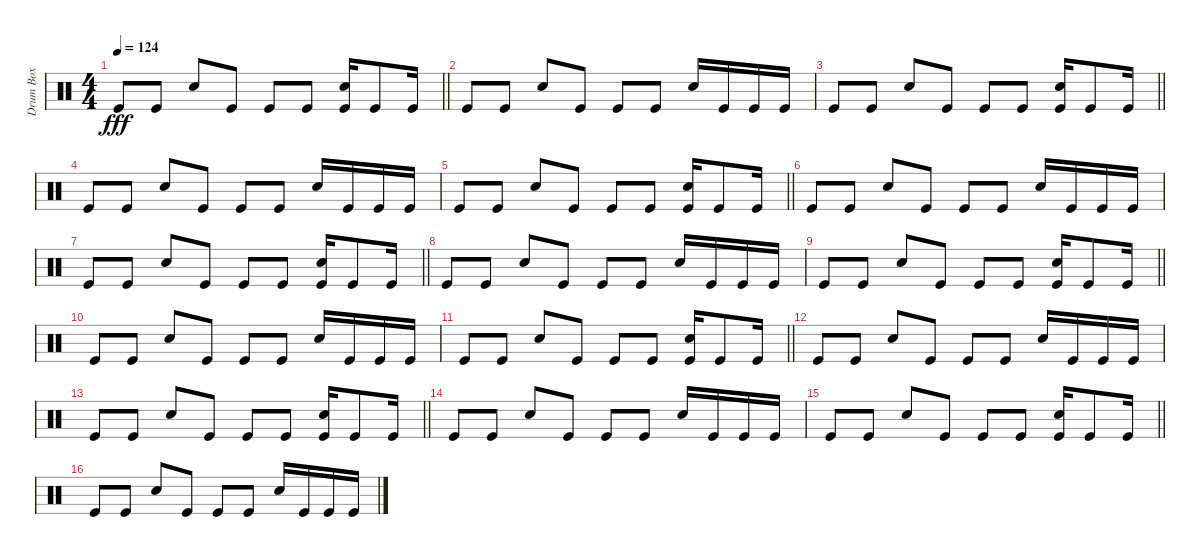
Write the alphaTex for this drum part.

\track ("Drum Box" "Drum Box") {instrument percussion}
\staff {score}
\articulation defaults
\ts (4 4)
\tempo 124
\clef neutral
\barLineRight lightlight
\ks c "Kick (hit)".8{dy fff} "Kick (hit)".8 "Snare (hit) 2".8 "Kick (hit)".8 "Kick (hit)".8 "Kick (hit)".8
("Snare (hit) 2" "Kick (hit)").16 "Kick (hit)".8 "Kick (hit)".16 |
"Kick (hit)".8 "Kick (hit)".8 "Snare (hit) 2".8 "Kick (hit)".8 "Kick (hit)".8 "Kick (hit)".8 "Snare (hit) 2".16 "Kick (hit)".16 "Kick (hit)".16 "Kick (hit)".16 |
\barLineRight lightlight "Kick (hit)".8 "Kick (hit)".8 "Snare (hit) 2".8 "Kick (hit)".8 "Kick (hit)".8 "Kick (hit)".8
("Snare (hit) 2" "Kick (hit)").16 "Kick (hit)".8 "Kick (hit)".16 |
"Kick (hit)".8 "Kick (hit)".8 "Snare (hit) 2".8 "Kick (hit)".8 "Kick (hit)".8 "Kick (hit)".8 "Snare (hit) 2".16 "Kick (hit)".16 "Kick (hit)".16 "Kick (hit)".16 |
\barLineRight lightlight "Kick (hit)".8 "Kick (hit)".8 "Snare (hit) 2".8 "Kick (hit)".8 "Kick (hit)".8 "Kick (hit)".8
("Snare (hit) 2" "Kick (hit)").16 "Kick (hit)".8 "Kick (hit)".16 |
"Kick (hit)".8 "Kick (hit)".8 "Snare (hit) 2".8 "Kick (hit)".8 "Kick (hit)".8 "Kick (hit)".8 "Snare (hit) 2".16 "Kick (hit)".16 "Kick (hit)".16 "Kick (hit)".16 |
\barLineRight lightlight "Kick (hit)".8 "Kick (hit)".8 "Snare (hit) 2".8 "Kick (hit)".8 "Kick (hit)".8 "Kick (hit)".8
("Snare (hit) 2" "Kick (hit)").16 "Kick (hit)".8 "Kick (hit)".16 |
"Kick (hit)".8 "Kick (hit)".8 "Snare (hit) 2".8 "Kick (hit)".8 "Kick (hit)".8 "Kick (hit)".8 "Snare (hit) 2".16 "Kick (hit)".16 "Kick (hit)".16 "Kick (hit)".16 |
\barLineRight lightlight "Kick (hit)".8 "Kick (hit)".8 "Snare (hit) 2".8 "Kick (hit)".8 "Kick (hit)".8 "Kick (hit)".8
("Snare (hit) 2" "Kick (hit)").16 "Kick (hit)".8 "Kick (hit)".16 |
"Kick (hit)".8 "Kick (hit)".8 "Snare (hit) 2".8 "Kick (hit)".8 "Kick (hit)".8 "Kick (hit)".8 "Snare (hit) 2".16 "Kick (hit)".16 "Kick (hit)".16 "Kick (hit)".16 |
\barLineRight lightlight "Kick (hit)".8 "Kick (hit)".8 "Snare (hit) 2".8 "Kick (hit)".8 "Kick (hit)".8 "Kick (hit)".8
("Snare (hit) 2" "Kick (hit)").16 "Kick (hit)".8 "Kick (hit)".16 |
"Kick (hit)".8 "Kick (hit)".8 "Snare (hit) 2".8 "Kick (hit)".8 "Kick (hit)".8 "Kick (hit)".8 "Snare (hit) 2".16 "Kick (hit)".16 "Kick (hit)".16 "Kick (hit)".16 |
\barLineRight lightlight "Kick (hit)".8 "Kick (hit)".8 "Snare (hit) 2".8 "Kick (hit)".8 "Kick (hit)".8 "Kick (hit)".8
("Snare (hit) 2" "Kick (hit)").16 "Kick (hit)".8 "Kick (hit)".16 |
"Kick (hit)".8 "Kick (hit)".8 "Snare (hit) 2".8 "Kick (hit)".8 "Kick (hit)".8 "Kick (hit)".8 "Snare (hit) 2".16 "Kick (hit)".16 "Kick (hit)".16 "Kick (hit)".16 |
\barLineRight lightlight "Kick (hit)".8 "Kick (hit)".8 "Snare (hit) 2".8 "Kick (hit)".8 "Kick (hit)".8 "Kick (hit)".8
("Snare (hit) 2" "Kick (hit)").16 "Kick (hit)".8 "Kick (hit)".16 |
"Kick (hit)".8 "Kick (hit)".8 "Snare (hit) 2".8 "Kick (hit)".8 "Kick (hit)".8 "Kick (hit)".8 "Snare (hit) 2".16 "Kick (hit)".16 "Kick (hit)".16 "Kick (hit)".16
